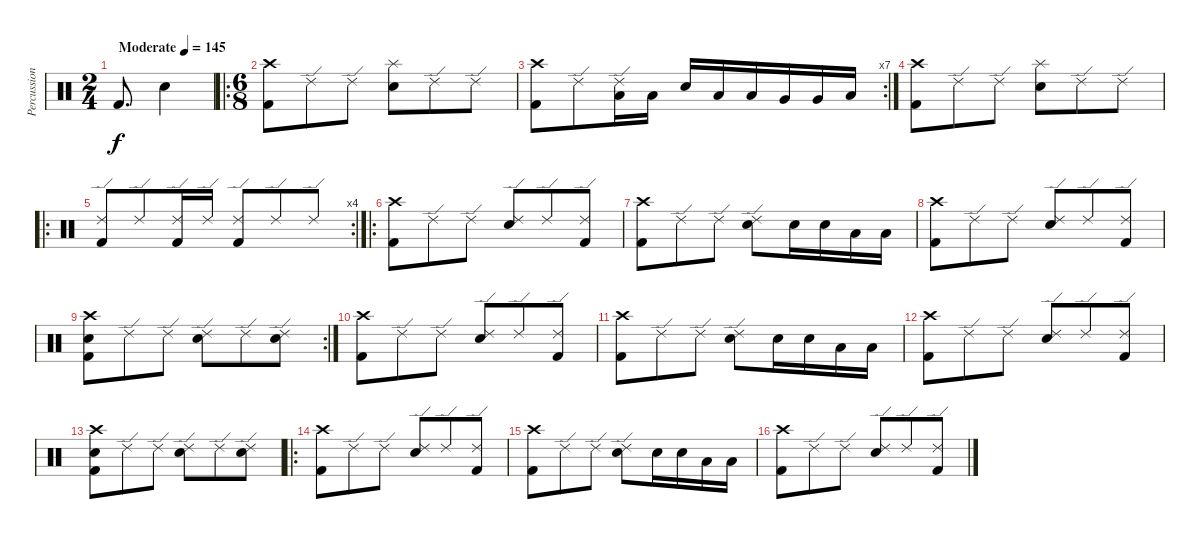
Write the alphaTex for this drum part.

\track ("Percussion" "Percussion") {instrument percussion}
\staff {score}
\articulation defaults
\ts (2 4)
\tempo (145 "Moderate")
\clef neutral
\ks c "Kick (hit) 2".8{d dy f} "Electric Snare (hit)".4
|
\ro
\ts (6 8)
("Crash high (hit)" "Kick (hit) 2").8 "Ride (edge) 2".8 "Ride (edge) 2".8 ("Splash (hit)" "Electric Snare (hit)").8 "Ride (edge) 2".8 "Ride (edge) 2".8 |
\rc 7
("Crash high (hit)" "Kick (hit) 2").8 "Ride (edge) 2".8 ("Ride (edge) 2" "Low Tom (hit)").16 "Low Tom (hit)".16 "Electric Snare (hit)".16 "Low Tom (hit)".16 "Low Tom (hit)".16 "Very Low Tom (hit)".16 "Very Low Tom (hit)".16 "Low Floor Tom (hit)".16 |
("Crash high (hit)" "Kick (hit) 2").8 "Ride (edge) 2".8 "Ride (edge) 2".8 ("Splash (hit)" "Electric Snare (hit)").8 "Ride (edge) 2".8 "Ride (edge) 2".8 |
\ro
\rc 4
("Ride (edge) 2" "Kick (hit) 2").8 "Ride (edge) 2".8 ("Ride (edge) 2" "Kick (hit) 2").16 "Ride (edge) 2".16 ("Ride (edge) 2" "Kick (hit) 2").8 "Ride (edge) 2".8 "Ride (edge) 2".8 |
\ro
("Crash high (hit)" "Kick (hit) 2").8 "Ride (edge) 2".8 "Ride (edge) 2".8 ("Ride (edge) 2" "Electric Snare (hit)").8 "Ride (edge) 2".8 ("Ride (edge) 2" "Kick (hit) 2").8 |
("Crash high (hit)" "Kick (hit) 2").8 "Ride (edge) 2".8 "Ride (edge) 2".8 ("Ride (edge) 2" "Electric Snare (hit)").8 "Electric Snare (hit)".16 "Electric Snare (hit)".16 "Low Tom (hit)".16 "Low Tom (hit)".16 |
("Crash high (hit)" "Kick (hit) 2").8 "Ride (edge) 2".8 "Ride (edge) 2".8 ("Ride (edge) 2" "Electric Snare (hit)").8 "Ride (edge) 2".8 ("Ride (edge) 2" "Kick (hit) 2").8 |
\rc 2
("Crash high (hit)" "Electric Snare (hit)" "Kick (hit) 2").8 "Ride (edge) 2".8 "Ride (edge) 2".8 ("Ride (edge) 2" "Electric Snare (hit)").8 "Ride (edge) 2".8 ("Ride (edge) 2" "Electric Snare (hit)").8 |
("Crash high (hit)" "Kick (hit) 2").8 "Ride (edge) 2".8 "Ride (edge) 2".8 ("Ride (edge) 2" "Electric Snare (hit)").8 "Ride (edge) 2".8 ("Ride (edge) 2" "Kick (hit) 2").8 |
("Crash high (hit)" "Kick (hit) 2").8 "Ride (edge) 2".8 "Ride (edge) 2".8 ("Ride (edge) 2" "Electric Snare (hit)").8 "Electric Snare (hit)".16 "Electric Snare (hit)".16 "Low Tom (hit)".16 "Low Tom (hit)".16 |
("Crash high (hit)" "Kick (hit) 2").8 "Ride (edge) 2".8 "Ride (edge) 2".8 ("Ride (edge) 2" "Electric Snare (hit)").8 "Ride (edge) 2".8 ("Ride (edge) 2" "Kick (hit) 2").8 |
("Crash high (hit)" "Electric Snare (hit)" "Kick (hit) 2").8 "Ride (edge) 2".8 "Ride (edge) 2".8 ("Ride (edge) 2" "Electric Snare (hit)").8 "Ride (edge) 2".8 ("Ride (edge) 2" "Electric Snare (hit)").8 |
\ro
("Crash high (hit)" "Kick (hit) 2").8 "Ride (edge) 2".8 "Ride (edge) 2".8 ("Ride (edge) 2" "Electric Snare (hit)").8 "Ride (edge) 2".8 ("Ride (edge) 2" "Kick (hit) 2").8 |
("Crash high (hit)" "Kick (hit) 2").8 "Ride (edge) 2".8 "Ride (edge) 2".8 ("Ride (edge) 2" "Electric Snare (hit)").8 "Electric Snare (hit)".16 "Electric Snare (hit)".16 "Low Tom (hit)".16 "Low Tom (hit)".16 |
("Crash high (hit)" "Kick (hit) 2").8 "Ride (edge) 2".8 "Ride (edge) 2".8 ("Ride (edge) 2" "Electric Snare (hit)").8 "Ride (edge) 2".8 ("Ride (edge) 2" "Kick (hit) 2").8
